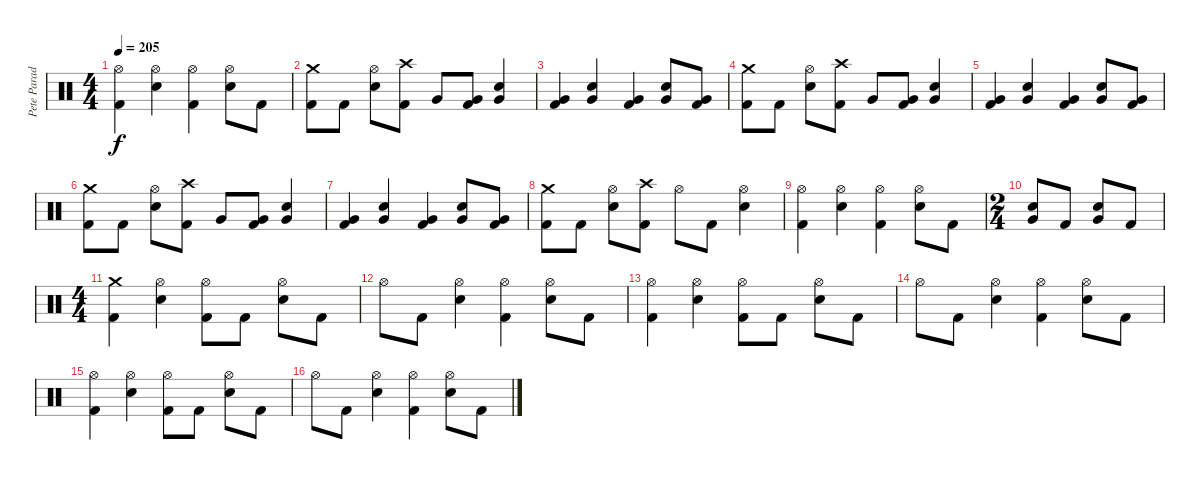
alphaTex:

\track ("Pete Parada - Drums" "Pete Parad") {instrument percussion}
\staff {score}
\articulation defaults
\ts (4 4)
\tempo 205
\clef neutral
\ks c
("Hi-Hat (open)" "Kick (hit) 2").4{dy f} ("Hi-Hat (open)" "Electric Snare (hit)").4 ("Hi-Hat (open)" "Kick (hit) 2").4 ("Hi-Hat (open)" "Electric Snare (hit)").8 "Kick (hit) 2".8 |
("Crash medium (hit)" "Kick (hit) 2").8 "Kick (hit) 2".8 ("Hi-Hat (open)" "Electric Snare (hit)").8 ("Crash high (hit)" "Kick (hit) 2").8 "Very Low Tom (hit)".8 ("Very Low Tom (hit)" "Kick (hit) 2").8 ("Very Low Tom (hit)" "Electric Snare (hit)").4 |
("Very Low Tom (hit)" "Kick (hit) 2").4 ("Very Low Tom (hit)" "Electric Snare (hit)").4 ("Very Low Tom (hit)" "Kick (hit) 2").4 ("Very Low Tom (hit)" "Electric Snare (hit)").8 ("Very Low Tom (hit)" "Kick (hit) 2").8 |
("Crash medium (hit)" "Kick (hit) 2").8 "Kick (hit) 2".8 ("Hi-Hat (open)" "Electric Snare (hit)").8 ("Crash high (hit)" "Kick (hit) 2").8 "Very Low Tom (hit)".8 ("Very Low Tom (hit)" "Kick (hit) 2").8 ("Very Low Tom (hit)" "Electric Snare (hit)").4 |
("Very Low Tom (hit)" "Kick (hit) 2").4 ("Very Low Tom (hit)" "Electric Snare (hit)").4 ("Very Low Tom (hit)" "Kick (hit) 2").4 ("Very Low Tom (hit)" "Electric Snare (hit)").8 ("Very Low Tom (hit)" "Kick (hit) 2").8 |
("Crash medium (hit)" "Kick (hit) 2").8 "Kick (hit) 2".8 ("Hi-Hat (open)" "Electric Snare (hit)").8 ("Crash high (hit)" "Kick (hit) 2").8 "Very Low Tom (hit)".8 ("Very Low Tom (hit)" "Kick (hit) 2").8 ("Very Low Tom (hit)" "Electric Snare (hit)").4 |
("Very Low Tom (hit)" "Kick (hit) 2").4 ("Very Low Tom (hit)" "Electric Snare (hit)").4 ("Very Low Tom (hit)" "Kick (hit) 2").4 ("Very Low Tom (hit)" "Electric Snare (hit)").8 ("Very Low Tom (hit)" "Kick (hit) 2").8 |
("Crash medium (hit)" "Kick (hit) 2").8 "Kick (hit) 2".8 ("Hi-Hat (open)" "Electric Snare (hit)").8 ("Crash high (hit)" "Kick (hit) 2").8 "Hi-Hat (open)".8 "Kick (hit) 2".8 ("Hi-Hat (open)" "Electric Snare (hit)").4 |
("Hi-Hat (open)" "Kick (hit) 2").4 ("Hi-Hat (open)" "Electric Snare (hit)").4 ("Hi-Hat (open)" "Kick (hit) 2").4 ("Hi-Hat (open)" "Electric Snare (hit)").8 "Kick (hit) 2".8 |
\ts (2 4)
("Very Low Tom (hit)" "Electric Snare (hit)").8 "Kick (hit) 2".8 ("Very Low Tom (hit)" "Electric Snare (hit)").8 "Kick (hit) 2".8 |
\ts (4 4)
("Crash medium (hit)" "Kick (hit) 2").4 ("Hi-Hat (open)" "Electric Snare (hit)").4 ("Hi-Hat (open)" "Kick (hit) 2").8 "Kick (hit) 2".8 ("Hi-Hat (open)" "Electric Snare (hit)").8 "Kick (hit) 2".8 |
"Hi-Hat (open)".8 "Kick (hit) 2".8 ("Hi-Hat (open)" "Electric Snare (hit)").4 ("Hi-Hat (open)" "Kick (hit) 2").4 ("Hi-Hat (open)" "Electric Snare (hit)").8 "Kick (hit) 2".8 |
("Hi-Hat (open)" "Kick (hit) 2").4 ("Hi-Hat (open)" "Electric Snare (hit)").4 ("Hi-Hat (open)" "Kick (hit) 2").8 "Kick (hit) 2".8 ("Hi-Hat (open)" "Electric Snare (hit)").8 "Kick (hit) 2".8 |
"Hi-Hat (open)".8 "Kick (hit) 2".8 ("Hi-Hat (open)" "Electric Snare (hit)").4 ("Hi-Hat (open)" "Kick (hit) 2").4 ("Hi-Hat (open)" "Electric Snare (hit)").8 "Kick (hit) 2".8 |
("Hi-Hat (open)" "Kick (hit) 2").4 ("Hi-Hat (open)" "Electric Snare (hit)").4 ("Hi-Hat (open)" "Kick (hit) 2").8 "Kick (hit) 2".8 ("Hi-Hat (open)" "Electric Snare (hit)").8 "Kick (hit) 2".8 |
"Hi-Hat (open)".8 "Kick (hit) 2".8 ("Hi-Hat (open)" "Electric Snare (hit)").4 ("Hi-Hat (open)" "Kick (hit) 2").4 ("Hi-Hat (open)" "Electric Snare (hit)").8 "Kick (hit) 2".8
